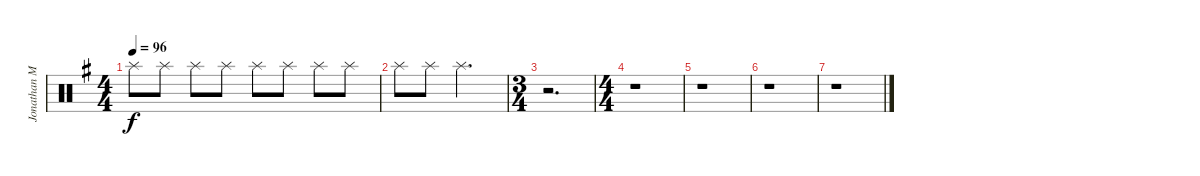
\track ("Jonathan Mover (Drums)" "Jonathan M") {instrument percussion}
\staff {score}
\articulation defaults
\ts (4 4)
\tempo 96
\clef neutral
\ks g "Splash (hit)".8{dy f} "Splash (hit)".8 "Splash (hit)".8 "Splash (hit)".8 "Splash (hit)".8 "Splash (hit)".8 "Splash (hit)".8 "Splash (hit)".8
|
"Splash (hit)".8 "Splash (hit)".8 "Splash (hit)".2{d} |
\ts (3 4)
r.2{d} |
\ts (4 4)
r.1 |
r.1 |
r.1 |
r.1
